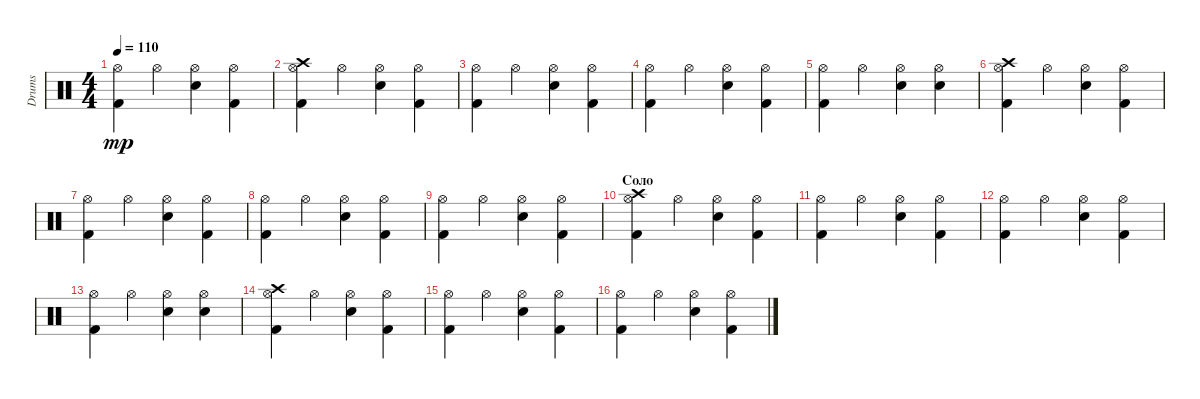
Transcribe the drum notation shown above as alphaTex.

\track ("Drums" "Drums") {instrument percussion}
\staff {score}
\articulation defaults
\ts (4 4)
\tempo 110
\clef neutral
\ks c
("Kick (hit) 2" "Hi-Hat (open)").4{dy mp} "Hi-Hat (open)".4 ("Snare (hit) 2" "Hi-Hat (open)").4 ("Kick (hit) 2" "Hi-Hat (open)").4 |
("Crash high (hit)" "Kick (hit) 2" "Hi-Hat (open)").4 "Hi-Hat (open)".4 ("Snare (hit) 2" "Hi-Hat (open)").4 ("Kick (hit) 2" "Hi-Hat (open)").4 |
("Kick (hit) 2" "Hi-Hat (open)").4 "Hi-Hat (open)".4 ("Snare (hit) 2" "Hi-Hat (open)").4 ("Kick (hit) 2" "Hi-Hat (open)").4 |
("Kick (hit) 2" "Hi-Hat (open)").4 "Hi-Hat (open)".4 ("Snare (hit) 2" "Hi-Hat (open)").4 ("Kick (hit) 2" "Hi-Hat (open)").4 |
("Kick (hit) 2" "Hi-Hat (open)").4 "Hi-Hat (open)".4 ("Snare (hit) 2" "Hi-Hat (open)").4 ("Snare (hit) 2" "Hi-Hat (open)").4 |
("Crash high (hit)" "Kick (hit) 2" "Hi-Hat (open)").4 "Hi-Hat (open)".4 ("Snare (hit) 2" "Hi-Hat (open)").4 ("Kick (hit) 2" "Hi-Hat (open)").4 |
("Kick (hit) 2" "Hi-Hat (open)").4 "Hi-Hat (open)".4 ("Snare (hit) 2" "Hi-Hat (open)").4 ("Kick (hit) 2" "Hi-Hat (open)").4 |
("Kick (hit) 2" "Hi-Hat (open)").4 "Hi-Hat (open)".4 ("Snare (hit) 2" "Hi-Hat (open)").4 ("Kick (hit) 2" "Hi-Hat (open)").4 |
("Kick (hit) 2" "Hi-Hat (open)").4 "Hi-Hat (open)".4 ("Snare (hit) 2" "Hi-Hat (open)").4 ("Kick (hit) 2" "Hi-Hat (open)").4 |
\section ("" "Соло")
("Crash high (hit)" "Kick (hit) 2" "Hi-Hat (open)").4 "Hi-Hat (open)".4 ("Snare (hit) 2" "Hi-Hat (open)").4 ("Kick (hit) 2" "Hi-Hat (open)").4 |
("Kick (hit) 2" "Hi-Hat (open)").4 "Hi-Hat (open)".4 ("Snare (hit) 2" "Hi-Hat (open)").4 ("Kick (hit) 2" "Hi-Hat (open)").4 |
("Kick (hit) 2" "Hi-Hat (open)").4 "Hi-Hat (open)".4 ("Snare (hit) 2" "Hi-Hat (open)").4 ("Kick (hit) 2" "Hi-Hat (open)").4 |
("Kick (hit) 2" "Hi-Hat (open)").4 "Hi-Hat (open)".4 ("Snare (hit) 2" "Hi-Hat (open)").4 ("Snare (hit) 2" "Hi-Hat (open)").4 |
("Crash high (hit)" "Kick (hit) 2" "Hi-Hat (open)").4 "Hi-Hat (open)".4 ("Snare (hit) 2" "Hi-Hat (open)").4 ("Kick (hit) 2" "Hi-Hat (open)").4 |
("Kick (hit) 2" "Hi-Hat (open)").4 "Hi-Hat (open)".4 ("Snare (hit) 2" "Hi-Hat (open)").4 ("Kick (hit) 2" "Hi-Hat (open)").4 |
("Kick (hit) 2" "Hi-Hat (open)").4 "Hi-Hat (open)".4 ("Snare (hit) 2" "Hi-Hat (open)").4 ("Kick (hit) 2" "Hi-Hat (open)").4
